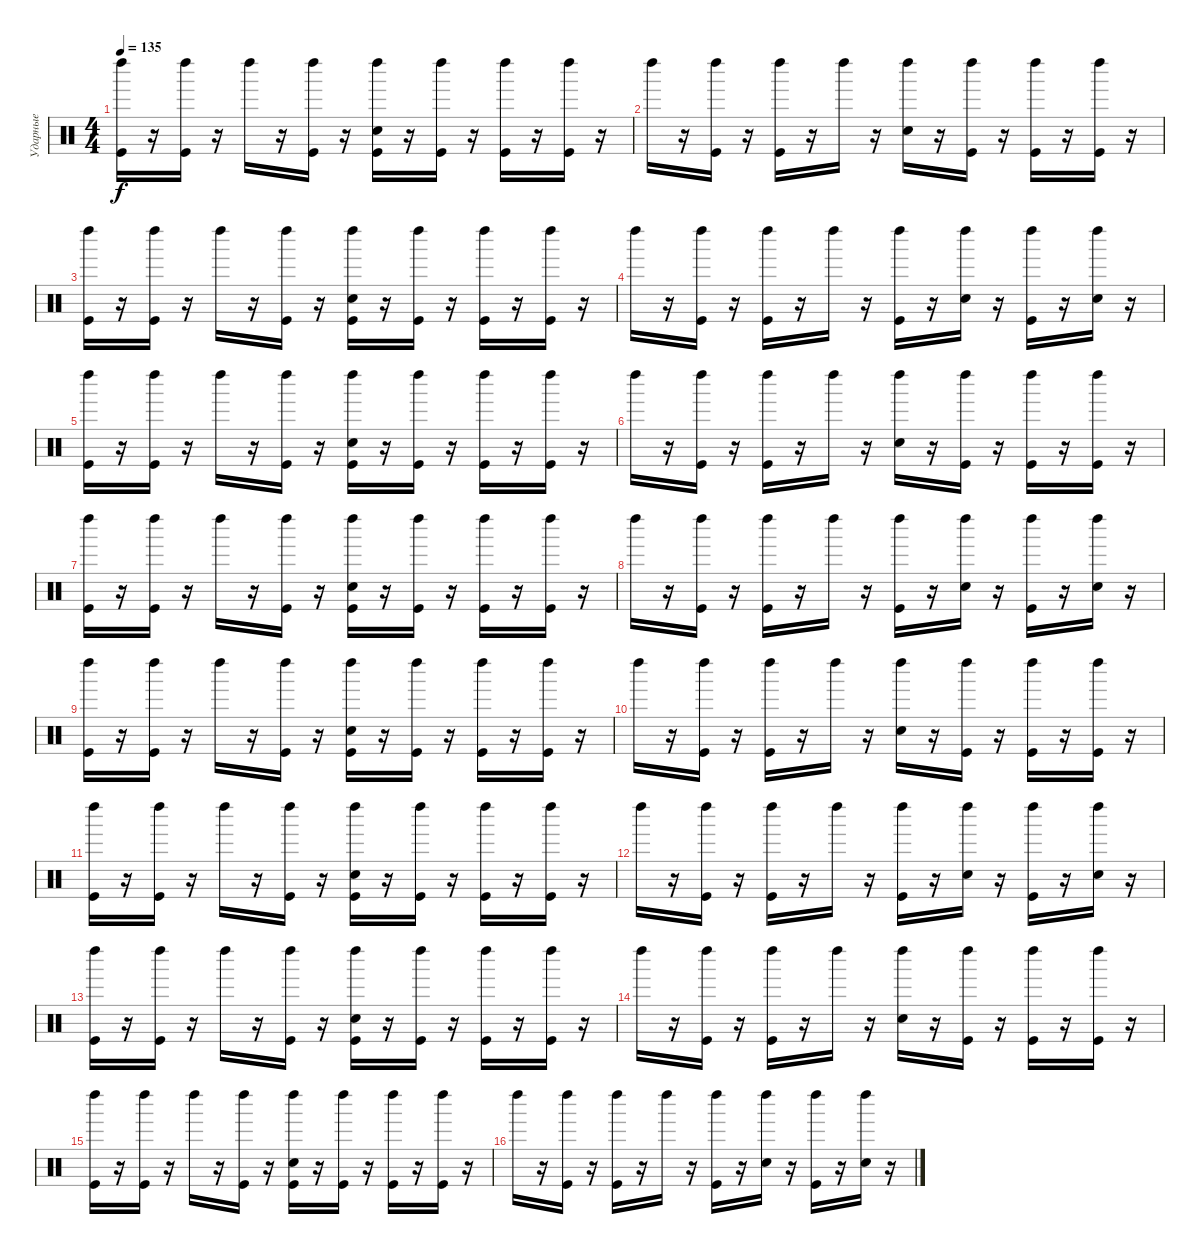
\track ("Ударные" "Ударные") {instrument percussion}
\staff {score}
\articulation defaults
\ts (4 4)
\tempo 135
\clef neutral
\ks c
("Left Maraca (hit)" "Kick (hit)").16{dy f} r.16 ("Left Maraca (hit)" "Kick (hit)").16 r.16 "Left Maraca (hit)".16 r.16 ("Left Maraca (hit)" "Kick (hit)").16 r.16 ("Left Maraca (hit)" "Electric Snare (hit)" "Kick (hit)").16 r.16 ("Left Maraca (hit)" "Kick (hit)").16 r.16 ("Left Maraca (hit)" "Kick (hit)").16 r.16 ("Left Maraca (hit)" "Kick (hit)").16 r.16 |
"Left Maraca (hit)".16 r.16 ("Left Maraca (hit)" "Kick (hit)").16 r.16 ("Left Maraca (hit)" "Kick (hit)").16 r.16 "Left Maraca (hit)".16 r.16 ("Left Maraca (hit)" "Electric Snare (hit)").16 r.16 ("Left Maraca (hit)" "Kick (hit)").16 r.16 ("Left Maraca (hit)" "Kick (hit)").16 r.16 ("Left Maraca (hit)" "Kick (hit)").16 r.16 |
("Left Maraca (hit)" "Kick (hit)").16 r.16 ("Left Maraca (hit)" "Kick (hit)").16 r.16 "Left Maraca (hit)".16 r.16 ("Left Maraca (hit)" "Kick (hit)").16 r.16 ("Left Maraca (hit)" "Electric Snare (hit)" "Kick (hit)").16 r.16 ("Left Maraca (hit)" "Kick (hit)").16 r.16 ("Left Maraca (hit)" "Kick (hit)").16 r.16 ("Left Maraca (hit)" "Kick (hit)").16 r.16 |
"Left Maraca (hit)".16 r.16 ("Left Maraca (hit)" "Kick (hit)").16 r.16 ("Left Maraca (hit)" "Kick (hit)").16 r.16 "Left Maraca (hit)".16 r.16 ("Left Maraca (hit)" "Kick (hit)").16 r.16 ("Left Maraca (hit)" "Electric Snare (hit)").16 r.16 ("Left Maraca (hit)" "Kick (hit)").16 r.16 ("Left Maraca (hit)" "Electric Snare (hit)").16 r.16 |
("Left Maraca (hit)" "Kick (hit)").16 r.16 ("Left Maraca (hit)" "Kick (hit)").16 r.16 "Left Maraca (hit)".16 r.16 ("Left Maraca (hit)" "Kick (hit)").16 r.16 ("Left Maraca (hit)" "Electric Snare (hit)" "Kick (hit)").16 r.16 ("Left Maraca (hit)" "Kick (hit)").16 r.16 ("Left Maraca (hit)" "Kick (hit)").16 r.16 ("Left Maraca (hit)" "Kick (hit)").16 r.16 |
"Left Maraca (hit)".16 r.16 ("Left Maraca (hit)" "Kick (hit)").16 r.16 ("Left Maraca (hit)" "Kick (hit)").16 r.16 "Left Maraca (hit)".16 r.16 ("Left Maraca (hit)" "Electric Snare (hit)").16 r.16 ("Left Maraca (hit)" "Kick (hit)").16 r.16 ("Left Maraca (hit)" "Kick (hit)").16 r.16 ("Left Maraca (hit)" "Kick (hit)").16 r.16 |
("Left Maraca (hit)" "Kick (hit)").16 r.16 ("Left Maraca (hit)" "Kick (hit)").16 r.16 "Left Maraca (hit)".16 r.16 ("Left Maraca (hit)" "Kick (hit)").16 r.16 ("Left Maraca (hit)" "Electric Snare (hit)" "Kick (hit)").16 r.16 ("Left Maraca (hit)" "Kick (hit)").16 r.16 ("Left Maraca (hit)" "Kick (hit)").16 r.16 ("Left Maraca (hit)" "Kick (hit)").16 r.16 |
"Left Maraca (hit)".16 r.16 ("Left Maraca (hit)" "Kick (hit)").16 r.16 ("Left Maraca (hit)" "Kick (hit)").16 r.16 "Left Maraca (hit)".16 r.16 ("Left Maraca (hit)" "Kick (hit)").16 r.16 ("Left Maraca (hit)" "Electric Snare (hit)").16 r.16 ("Left Maraca (hit)" "Kick (hit)").16 r.16 ("Left Maraca (hit)" "Electric Snare (hit)").16 r.16 |
("Left Maraca (hit)" "Kick (hit)").16 r.16 ("Left Maraca (hit)" "Kick (hit)").16 r.16 "Left Maraca (hit)".16 r.16 ("Left Maraca (hit)" "Kick (hit)").16 r.16 ("Left Maraca (hit)" "Electric Snare (hit)" "Kick (hit)").16 r.16 ("Left Maraca (hit)" "Kick (hit)").16 r.16 ("Left Maraca (hit)" "Kick (hit)").16 r.16 ("Left Maraca (hit)" "Kick (hit)").16 r.16 |
"Left Maraca (hit)".16 r.16 ("Left Maraca (hit)" "Kick (hit)").16 r.16 ("Left Maraca (hit)" "Kick (hit)").16 r.16 "Left Maraca (hit)".16 r.16 ("Left Maraca (hit)" "Electric Snare (hit)").16 r.16 ("Left Maraca (hit)" "Kick (hit)").16 r.16 ("Left Maraca (hit)" "Kick (hit)").16 r.16 ("Left Maraca (hit)" "Kick (hit)").16 r.16 |
("Left Maraca (hit)" "Kick (hit)").16 r.16 ("Left Maraca (hit)" "Kick (hit)").16 r.16 "Left Maraca (hit)".16 r.16 ("Left Maraca (hit)" "Kick (hit)").16 r.16 ("Left Maraca (hit)" "Electric Snare (hit)" "Kick (hit)").16 r.16 ("Left Maraca (hit)" "Kick (hit)").16 r.16 ("Left Maraca (hit)" "Kick (hit)").16 r.16 ("Left Maraca (hit)" "Kick (hit)").16 r.16 |
"Left Maraca (hit)".16 r.16 ("Left Maraca (hit)" "Kick (hit)").16 r.16 ("Left Maraca (hit)" "Kick (hit)").16 r.16 "Left Maraca (hit)".16 r.16 ("Left Maraca (hit)" "Kick (hit)").16 r.16 ("Left Maraca (hit)" "Electric Snare (hit)").16 r.16 ("Left Maraca (hit)" "Kick (hit)").16 r.16 ("Left Maraca (hit)" "Electric Snare (hit)").16 r.16 |
("Left Maraca (hit)" "Kick (hit)").16 r.16 ("Left Maraca (hit)" "Kick (hit)").16 r.16 "Left Maraca (hit)".16 r.16 ("Left Maraca (hit)" "Kick (hit)").16 r.16 ("Left Maraca (hit)" "Electric Snare (hit)" "Kick (hit)").16 r.16 ("Left Maraca (hit)" "Kick (hit)").16 r.16 ("Left Maraca (hit)" "Kick (hit)").16 r.16 ("Left Maraca (hit)" "Kick (hit)").16 r.16 |
"Left Maraca (hit)".16 r.16 ("Left Maraca (hit)" "Kick (hit)").16 r.16 ("Left Maraca (hit)" "Kick (hit)").16 r.16 "Left Maraca (hit)".16 r.16 ("Left Maraca (hit)" "Electric Snare (hit)").16 r.16 ("Left Maraca (hit)" "Kick (hit)").16 r.16 ("Left Maraca (hit)" "Kick (hit)").16 r.16 ("Left Maraca (hit)" "Kick (hit)").16 r.16 |
("Left Maraca (hit)" "Kick (hit)").16 r.16 ("Left Maraca (hit)" "Kick (hit)").16 r.16 "Left Maraca (hit)".16 r.16 ("Left Maraca (hit)" "Kick (hit)").16 r.16 ("Left Maraca (hit)" "Electric Snare (hit)" "Kick (hit)").16 r.16 ("Left Maraca (hit)" "Kick (hit)").16 r.16 ("Left Maraca (hit)" "Kick (hit)").16 r.16 ("Left Maraca (hit)" "Kick (hit)").16 r.16 |
"Left Maraca (hit)".16 r.16 ("Left Maraca (hit)" "Kick (hit)").16 r.16 ("Left Maraca (hit)" "Kick (hit)").16 r.16 "Left Maraca (hit)".16 r.16 ("Left Maraca (hit)" "Kick (hit)").16 r.16 ("Left Maraca (hit)" "Electric Snare (hit)").16 r.16 ("Left Maraca (hit)" "Kick (hit)").16 r.16 ("Left Maraca (hit)" "Electric Snare (hit)").16 r.16
